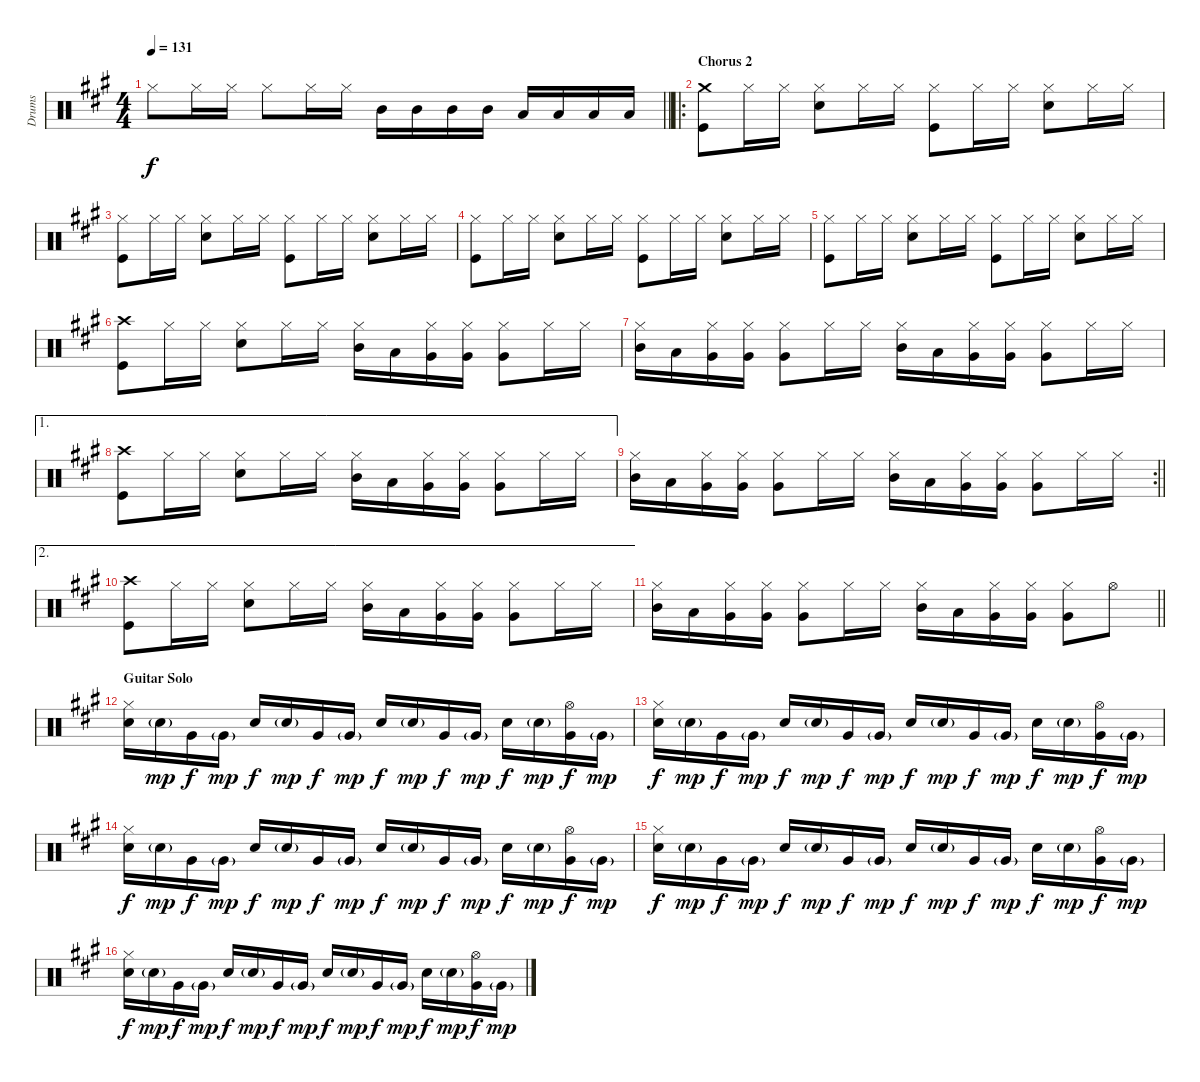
\track ("Drums" "Drums") {instrument percussion}
\staff {score}
\articulation defaults
\ts (4 4)
\tempo 131
\clef neutral
\barLineRight lightlight
\ks a "Hi-Hat (closed)".8{dy f} "Hi-Hat (closed)".16 "Hi-Hat (closed)".16 "Hi-Hat (closed)".8 "Hi-Hat (closed)".16 "Hi-Hat (closed)".16 "Mid Tom (hit)".16 "Mid Tom (hit)".16 "Mid Tom (hit)".16 "Mid Tom (hit)".16 "Low Tom (hit)".16 "Low Tom (hit)".16 "Low Tom (hit)".16 "Low Tom (hit)".16
|
\ro
\section ("" "Chorus 2")
("Crash medium (hit)" "Kick (hit)").8 "Hi-Hat (closed)".16 "Hi-Hat (closed)".16 ("Hi-Hat (closed)" "Snare (hit) 2").8 "Hi-Hat (closed)".16 "Hi-Hat (closed)".16 ("Hi-Hat (closed)" "Kick (hit)").8 "Hi-Hat (closed)".16 "Hi-Hat (closed)".16 ("Hi-Hat (closed)" "Snare (hit) 2").8 "Hi-Hat (closed)".16 "Hi-Hat (closed)".16 |
("Hi-Hat (closed)" "Kick (hit)").8 "Hi-Hat (closed)".16 "Hi-Hat (closed)".16 ("Hi-Hat (closed)" "Snare (hit) 2").8 "Hi-Hat (closed)".16 "Hi-Hat (closed)".16 ("Hi-Hat (closed)" "Kick (hit)").8 "Hi-Hat (closed)".16 "Hi-Hat (closed)".16 ("Hi-Hat (closed)" "Snare (hit) 2").8 "Hi-Hat (closed)".16 "Hi-Hat (closed)".16 |
("Hi-Hat (closed)" "Kick (hit)").8 "Hi-Hat (closed)".16 "Hi-Hat (closed)".16 ("Hi-Hat (closed)" "Snare (hit) 2").8 "Hi-Hat (closed)".16 "Hi-Hat (closed)".16 ("Hi-Hat (closed)" "Kick (hit)").8 "Hi-Hat (closed)".16 "Hi-Hat (closed)".16 ("Hi-Hat (closed)" "Snare (hit) 2").8 "Hi-Hat (closed)".16 "Hi-Hat (closed)".16 |
("Hi-Hat (closed)" "Kick (hit)").8 "Hi-Hat (closed)".16 "Hi-Hat (closed)".16 ("Hi-Hat (closed)" "Snare (hit) 2").8 "Hi-Hat (closed)".16 "Hi-Hat (closed)".16 ("Hi-Hat (closed)" "Kick (hit)").8 "Hi-Hat (closed)".16 "Hi-Hat (closed)".16 ("Hi-Hat (closed)" "Snare (hit) 2").8 "Hi-Hat (closed)".16 "Hi-Hat (closed)".16 |
("Crash high (hit)" "Kick (hit)").8 "Hi-Hat (closed)".16 "Hi-Hat (closed)".16 ("Hi-Hat (closed)" "Snare (hit) 2").8 "Hi-Hat (closed)".16 "Hi-Hat (closed)".16 ("Hi-Hat (closed)" "Mid Tom (hit)").16 "Low Tom (hit)".16 ("Hi-Hat (closed)" "Very Low Tom (hit)").16 ("Hi-Hat (closed)" "Very Low Tom (hit)").16 ("Hi-Hat (closed)" "Very Low Tom (hit)").8 "Hi-Hat (closed)".16 "Hi-Hat (closed)".16 |
("Hi-Hat (closed)" "Mid Tom (hit)").16 "Low Tom (hit)".16 ("Hi-Hat (closed)" "Very Low Tom (hit)").16 ("Hi-Hat (closed)" "Very Low Tom (hit)").16 ("Hi-Hat (closed)" "Very Low Tom (hit)").8 "Hi-Hat (closed)".16 "Hi-Hat (closed)".16 ("Hi-Hat (closed)" "Mid Tom (hit)").16 "Low Tom (hit)".16 ("Hi-Hat (closed)" "Very Low Tom (hit)").16 ("Hi-Hat (closed)" "Very Low Tom (hit)").16 ("Hi-Hat (closed)" "Very Low Tom (hit)").8 "Hi-Hat (closed)".16 "Hi-Hat (closed)".16 |
\ae 1
("Crash high (hit)" "Kick (hit)").8 "Hi-Hat (closed)".16 "Hi-Hat (closed)".16 ("Hi-Hat (closed)" "Snare (hit) 2").8 "Hi-Hat (closed)".16 "Hi-Hat (closed)".16 ("Hi-Hat (closed)" "Mid Tom (hit)").16 "Low Tom (hit)".16 ("Hi-Hat (closed)" "Very Low Tom (hit)").16 ("Hi-Hat (closed)" "Very Low Tom (hit)").16 ("Hi-Hat (closed)" "Very Low Tom (hit)").8 "Hi-Hat (closed)".16 "Hi-Hat (closed)".16 |
\rc 2
\barLineRight lightlight
("Hi-Hat (closed)" "Mid Tom (hit)").16 "Low Tom (hit)".16 ("Hi-Hat (closed)" "Very Low Tom (hit)").16 ("Hi-Hat (closed)" "Very Low Tom (hit)").16 ("Hi-Hat (closed)" "Very Low Tom (hit)").8 "Hi-Hat (closed)".16 "Hi-Hat (closed)".16 ("Hi-Hat (closed)" "Mid Tom (hit)").16 "Low Tom (hit)".16 ("Hi-Hat (closed)" "Very Low Tom (hit)").16 ("Hi-Hat (closed)" "Very Low Tom (hit)").16 ("Hi-Hat (closed)" "Very Low Tom (hit)").8 "Hi-Hat (closed)".16 "Hi-Hat (closed)".16 |
\ae 2
("Crash high (hit)" "Kick (hit)").8 "Hi-Hat (closed)".16 "Hi-Hat (closed)".16 ("Hi-Hat (closed)" "Snare (hit) 2").8 "Hi-Hat (closed)".16 "Hi-Hat (closed)".16 ("Hi-Hat (closed)" "Mid Tom (hit)").16 "Low Tom (hit)".16 ("Hi-Hat (closed)" "Very Low Tom (hit)").16 ("Hi-Hat (closed)" "Very Low Tom (hit)").16 ("Hi-Hat (closed)" "Very Low Tom (hit)").8 "Hi-Hat (closed)".16 "Hi-Hat (closed)".16 |
\barLineRight lightlight
("Hi-Hat (closed)" "Mid Tom (hit)").16 "Low Tom (hit)".16 ("Hi-Hat (closed)" "Very Low Tom (hit)").16 ("Hi-Hat (closed)" "Very Low Tom (hit)").16 ("Hi-Hat (closed)" "Very Low Tom (hit)").8 "Hi-Hat (closed)".16 "Hi-Hat (closed)".16 ("Hi-Hat (closed)" "Mid Tom (hit)").16 "Low Tom (hit)".16 ("Hi-Hat (closed)" "Very Low Tom (hit)").16 ("Hi-Hat (closed)" "Very Low Tom (hit)").16 ("Hi-Hat (closed)" "Very Low Tom (hit)").8 "Hi-Hat (open)".8 |
\section ("" "Guitar Solo")
("Hi-Hat (closed)" "Snare (hit) 2").16 "Snare (hit) 2"{g}.16{dy mp} "Very Low Tom (hit)".16{dy f} "Very Low Tom (hit)"{g}.16{dy mp} "Snare (hit) 2".16{dy f} "Snare (hit) 2"{g}.16{dy mp} "Very Low Tom (hit)".16{dy f} "Very Low Tom (hit)"{g}.16{dy mp} "Snare (hit) 2".16{dy f} "Snare (hit) 2"{g}.16{dy mp} "Very Low Tom (hit)".16{dy f} "Very Low Tom (hit)"{g}.16{dy mp} "Snare (hit) 2".16{dy f} "Snare (hit) 2"{g}.16{dy mp} ("Hi-Hat (open)" "Very Low Tom (hit)").16{dy f} "Very Low Tom (hit)"{g}.16{dy mp} |
("Hi-Hat (closed)" "Snare (hit) 2").16{dy f} "Snare (hit) 2"{g}.16{dy mp} "Very Low Tom (hit)".16{dy f} "Very Low Tom (hit)"{g}.16{dy mp} "Snare (hit) 2".16{dy f} "Snare (hit) 2"{g}.16{dy mp} "Very Low Tom (hit)".16{dy f} "Very Low Tom (hit)"{g}.16{dy mp} "Snare (hit) 2".16{dy f} "Snare (hit) 2"{g}.16{dy mp} "Very Low Tom (hit)".16{dy f} "Very Low Tom (hit)"{g}.16{dy mp} "Snare (hit) 2".16{dy f} "Snare (hit) 2"{g}.16{dy mp} ("Hi-Hat (open)" "Very Low Tom (hit)").16{dy f} "Very Low Tom (hit)"{g}.16{dy mp} |
("Hi-Hat (closed)" "Snare (hit) 2").16{dy f} "Snare (hit) 2"{g}.16{dy mp} "Very Low Tom (hit)".16{dy f} "Very Low Tom (hit)"{g}.16{dy mp} "Snare (hit) 2".16{dy f} "Snare (hit) 2"{g}.16{dy mp} "Very Low Tom (hit)".16{dy f} "Very Low Tom (hit)"{g}.16{dy mp} "Snare (hit) 2".16{dy f} "Snare (hit) 2"{g}.16{dy mp} "Very Low Tom (hit)".16{dy f} "Very Low Tom (hit)"{g}.16{dy mp} "Snare (hit) 2".16{dy f} "Snare (hit) 2"{g}.16{dy mp} ("Hi-Hat (open)" "Very Low Tom (hit)").16{dy f} "Very Low Tom (hit)"{g}.16{dy mp} |
("Hi-Hat (closed)" "Snare (hit) 2").16{dy f} "Snare (hit) 2"{g}.16{dy mp} "Very Low Tom (hit)".16{dy f} "Very Low Tom (hit)"{g}.16{dy mp} "Snare (hit) 2".16{dy f} "Snare (hit) 2"{g}.16{dy mp} "Very Low Tom (hit)".16{dy f} "Very Low Tom (hit)"{g}.16{dy mp} "Snare (hit) 2".16{dy f} "Snare (hit) 2"{g}.16{dy mp} "Very Low Tom (hit)".16{dy f} "Very Low Tom (hit)"{g}.16{dy mp} "Snare (hit) 2".16{dy f} "Snare (hit) 2"{g}.16{dy mp} ("Hi-Hat (open)" "Very Low Tom (hit)").16{dy f} "Very Low Tom (hit)"{g}.16{dy mp} |
("Hi-Hat (closed)" "Snare (hit) 2").16{dy f} "Snare (hit) 2"{g}.16{dy mp} "Very Low Tom (hit)".16{dy f} "Very Low Tom (hit)"{g}.16{dy mp} "Snare (hit) 2".16{dy f} "Snare (hit) 2"{g}.16{dy mp} "Very Low Tom (hit)".16{dy f} "Very Low Tom (hit)"{g}.16{dy mp} "Snare (hit) 2".16{dy f} "Snare (hit) 2"{g}.16{dy mp} "Very Low Tom (hit)".16{dy f} "Very Low Tom (hit)"{g}.16{dy mp} "Snare (hit) 2".16{dy f} "Snare (hit) 2"{g}.16{dy mp} ("Hi-Hat (open)" "Very Low Tom (hit)").16{dy f} "Very Low Tom (hit)"{g}.16{dy mp}
